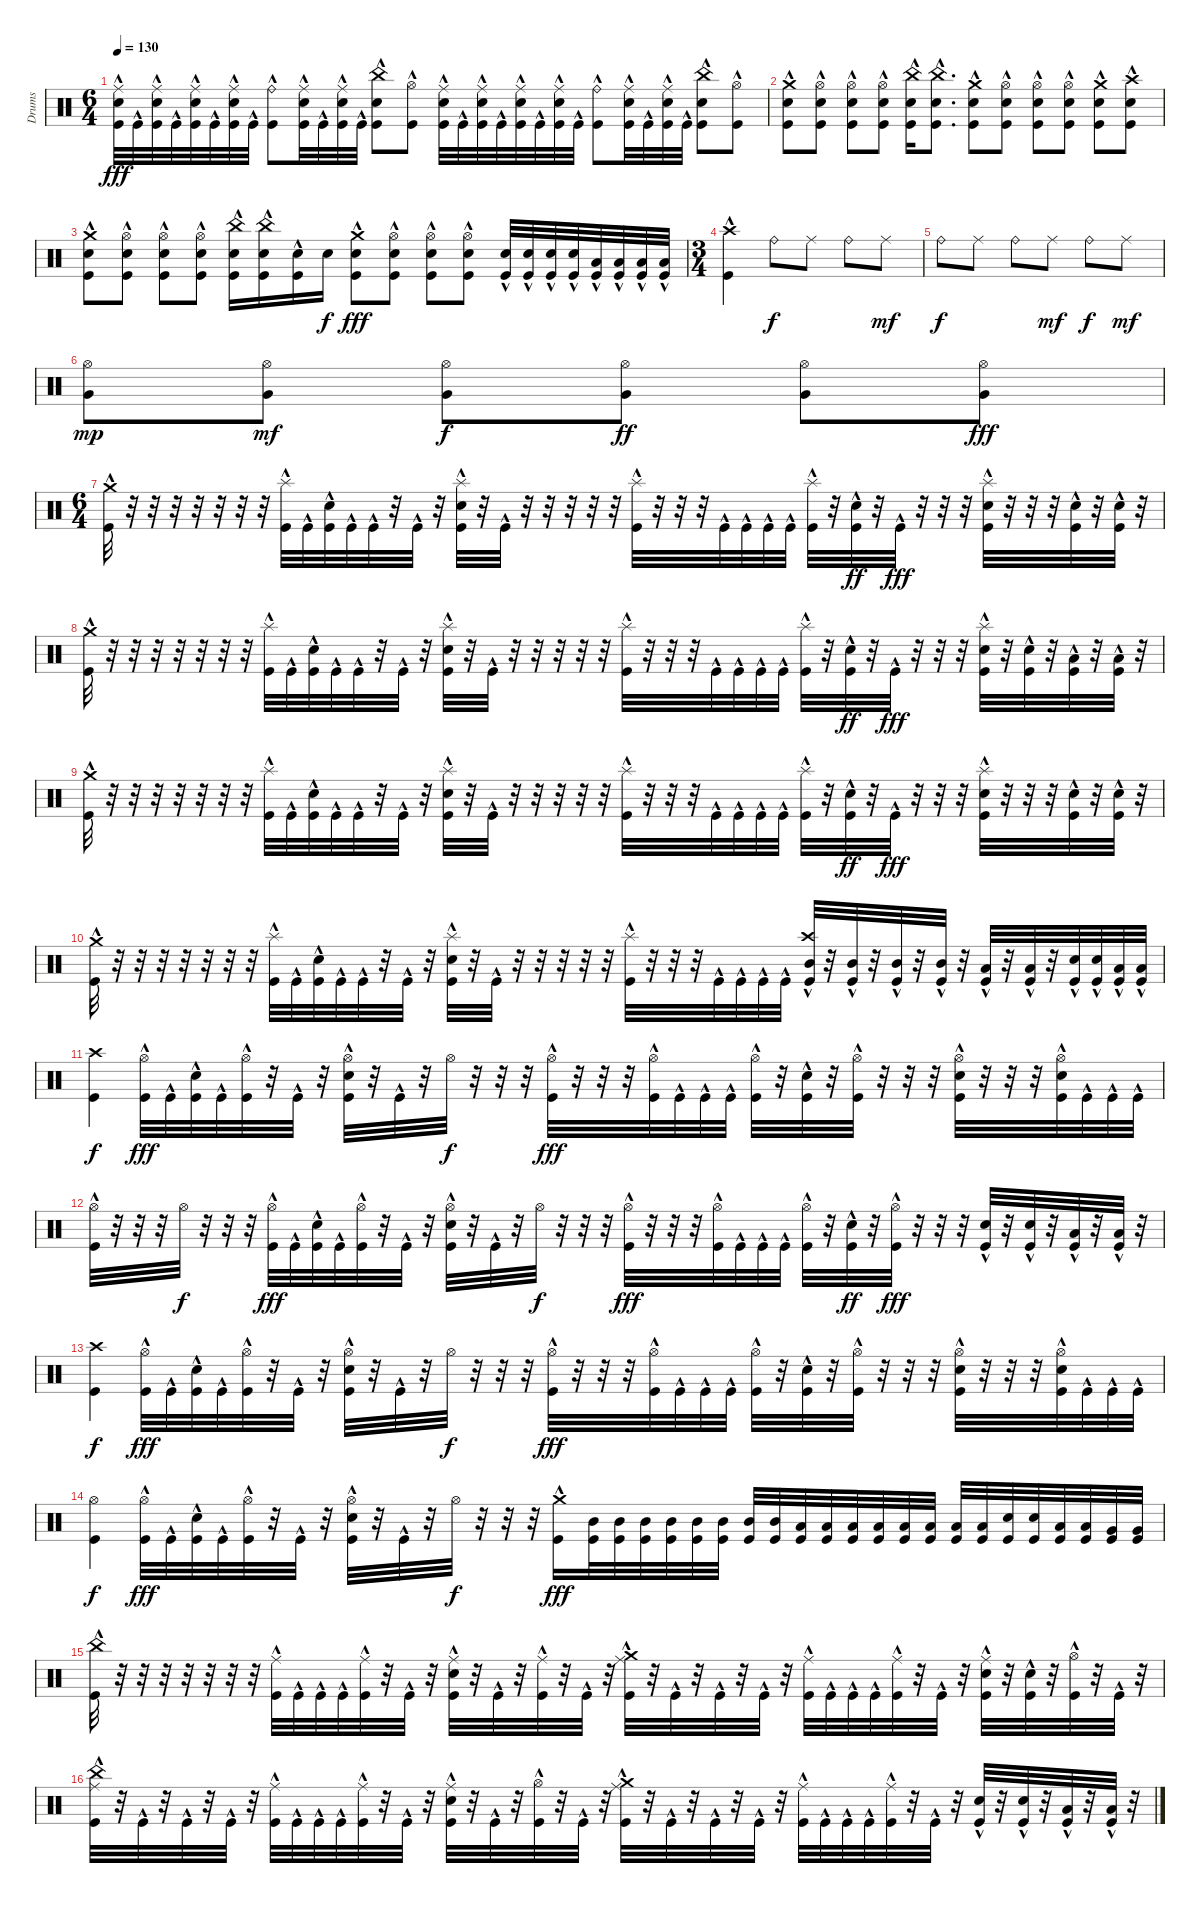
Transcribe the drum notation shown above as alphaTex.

\track ("Drums" "Drums") {instrument percussion}
\staff {score}
\articulation defaults
\ts (6 4)
\tempo 130
\clef neutral
\ks c
("Ride (middle)"{hac} "Snare (hit) 2" "Kick (hit)"{hac}).32{dy fff} "Kick (hit)"{hac}.32 ("Ride (middle)" "Snare (hit) 2" "Kick (hit)"{hac}).32 "Kick (hit)"{hac}.32 ("Ride (middle)" "Snare (hit) 2" "Kick (hit)"{hac}).32 "Kick (hit)"{hac}.32 ("Ride (middle)" "Snare (hit) 2" "Kick (hit)"{hac}).32 "Kick (hit)"{hac}.32 ("Ride (bell)"{hac} "Kick (hit)"{hac}).8 ("Ride (middle)" "Snare (hit) 2" "Kick (hit)"{hac}).32 "Kick (hit)"{hac}.32 ("Ride (middle)" "Snare (hit) 2" "Kick (hit)"{hac}).32 "Kick (hit)"{hac}.32 ("China (hit)" "Snare (hit) 2" "Kick (hit)"{hac}).8 ("Hi-Hat (open)" "Kick (hit)"{hac}).8 ("Ride (middle)"{hac} "Snare (hit) 2" "Kick (hit)"{hac}).32 "Kick (hit)"{hac}.32 ("Ride (middle)" "Snare (hit) 2" "Kick (hit)"{hac}).32 "Kick (hit)"{hac}.32 ("Ride (middle)" "Snare (hit) 2" "Kick (hit)"{hac}).32 "Kick (hit)"{hac}.32 ("Ride (middle)" "Snare (hit) 2" "Kick (hit)"{hac}).32 "Kick (hit)"{hac}.32 ("Ride (bell)"{hac} "Kick (hit)"{hac}).8 ("Ride (middle)" "Snare (hit) 2" "Kick (hit)"{hac}).32 "Kick (hit)"{hac}.32 ("Ride (middle)" "Snare (hit) 2" "Kick (hit)"{hac}).32 "Kick (hit)"{hac}.32 ("China (hit)" "Snare (hit) 2" "Kick (hit)"{hac}).8 ("Hi-Hat (open)" "Kick (hit)"{hac}).8 |
("Crash medium (hit)" "Snare (hit) 2" "Kick (hit)"{hac}).8 ("Hi-Hat (open)" "Snare (hit) 2" "Kick (hit)"{hac}).8 ("Hi-Hat (open)" "Snare (hit) 2" "Kick (hit)"{hac}).8 ("Hi-Hat (open)" "Snare (hit) 2" "Kick (hit)"{hac}).8 ("China (hit)" "Snare (hit) 2" "Kick (hit)"{hac}).16 ("China (hit)" "Snare (hit) 2" "Kick (hit)"{hac}).8{d} ("Crash medium (hit)" "Snare (hit) 2" "Kick (hit)"{hac}).8 ("Hi-Hat (open)" "Snare (hit) 2" "Kick (hit)"{hac}).8 ("Hi-Hat (open)" "Snare (hit) 2" "Kick (hit)"{hac}).8 ("Hi-Hat (open)" "Snare (hit) 2" "Kick (hit)"{hac}).8 ("Crash medium (hit)" "Snare (hit) 2" "Kick (hit)"{hac}).8 ("Crash high (hit)" "Snare (hit) 2" "Kick (hit)"{hac}).8 |
("Crash medium (hit)" "Snare (hit) 2" "Kick (hit)"{hac}).8 ("Hi-Hat (open)" "Snare (hit) 2" "Kick (hit)"{hac}).8 ("Hi-Hat (open)" "Snare (hit) 2" "Kick (hit)"{hac}).8 ("Hi-Hat (open)" "Snare (hit) 2" "Kick (hit)"{hac}).8 ("China (hit)" "Snare (hit) 2" "Kick (hit)"{hac}).16 ("China (hit)" "Snare (hit) 2" "Kick (hit)"{hac}).16 ("Snare (hit) 2" "Kick (hit)"{hac}).16 "Snare (hit) 2".16{dy f} ("Crash medium (hit)" "Snare (hit) 2" "Kick (hit)"{hac}).8{dy fff} ("Hi-Hat (open)" "Snare (hit) 2" "Kick (hit)"{hac}).8 ("Hi-Hat (open)" "Snare (hit) 2" "Kick (hit)"{hac}).8 ("Hi-Hat (open)" "Snare (hit) 2" "Kick (hit)"{hac}).8 ("Snare (hit) 2" "Kick (hit)"{hac}).32 ("Snare (hit) 2" "Kick (hit)"{hac}).32 ("Snare (hit) 2" "Kick (hit)"{hac}).32 ("Snare (hit) 2" "Kick (hit)"{hac}).32 ("Low Tom (hit)" "Kick (hit)"{hac}).32 ("Low Tom (hit)" "Kick (hit)"{hac}).32 ("Low Tom (hit)" "Kick (hit)"{hac}).32 ("Low Tom (hit)" "Kick (hit)"{hac}).32 |
\ts (3 4)
("Crash high (hit)" "Kick (hit)"{hac}).4 "Ride (bell)".8{dy f} "Ride (middle)".8 "Ride (bell)".8 "Ride (middle)".8{dy mf} |
"Ride (bell)".8{dy f} "Ride (middle)".8 "Ride (bell)".8 "Ride (middle)".8{dy mf} "Ride (bell)".8{dy f} "Ride (middle)".8{dy mf} |
("Very Low Tom (hit)" "Hi-Hat (open)").8{dy mp} ("Very Low Tom (hit)" "Hi-Hat (open)").8{dy mf} ("Very Low Tom (hit)" "Hi-Hat (open)").8{dy f} ("Very Low Tom (hit)" "Hi-Hat (open)").8{dy ff} ("Very Low Tom (hit)" "Hi-Hat (open)").8 ("Very Low Tom (hit)" "Hi-Hat (open)").8{dy fff} |
\ts (6 4)
("Crash medium (hit)" "Kick (hit)"{hac}).32 r.32 r.32 r.32 r.32 r.32 r.32 r.32 ("Splash (hit)" "Kick (hit)"{hac}).32 "Kick (hit)"{hac}.32 ("Snare (hit) 2" "Kick (hit)"{hac}).32 "Kick (hit)"{hac}.32 "Kick (hit)"{hac}.32 r.32 "Kick (hit)"{hac}.32 r.32 ("Splash (hit)" "Snare (hit) 2" "Kick (hit)"{hac}).32 r.32 "Kick (hit)"{hac}.32 r.32 r.32 r.32 r.32 r.32 ("Splash (hit)" "Kick (hit)"{hac}).32 r.32 r.32 r.32 "Kick (hit)"{hac}.32 "Kick (hit)"{hac}.32 "Kick (hit)"{hac}.32 "Kick (hit)"{hac}.32 ("Splash (hit)" "Kick (hit)"{hac}).32 r.32 ("Snare (hit) 2" "Kick (hit)"{hac}).32{dy ff} r.32 "Kick (hit)"{hac}.32{dy fff} r.32 r.32 r.32 ("Splash (hit)" "Snare (hit) 2" "Kick (hit)"{hac}).32 r.32 r.32 r.32 ("Snare (hit) 2" "Kick (hit)"{hac}).32 r.32 ("Snare (hit) 2" "Kick (hit)"{hac}).32 r.32 |
("Crash medium (hit)" "Kick (hit)"{hac}).32 r.32 r.32 r.32 r.32 r.32 r.32 r.32 ("Splash (hit)" "Kick (hit)"{hac}).32 "Kick (hit)"{hac}.32 ("Snare (hit) 2" "Kick (hit)"{hac}).32 "Kick (hit)"{hac}.32 "Kick (hit)"{hac}.32 r.32 "Kick (hit)"{hac}.32 r.32 ("Splash (hit)" "Snare (hit) 2" "Kick (hit)"{hac}).32 r.32 "Kick (hit)"{hac}.32 r.32 r.32 r.32 r.32 r.32 ("Splash (hit)" "Kick (hit)"{hac}).32 r.32 r.32 r.32 "Kick (hit)"{hac}.32 "Kick (hit)"{hac}.32 "Kick (hit)"{hac}.32 "Kick (hit)"{hac}.32 ("Splash (hit)" "Kick (hit)"{hac}).32 r.32 ("Snare (hit) 2" "Kick (hit)"{hac}).32{dy ff} r.32 "Kick (hit)"{hac}.32{dy fff} r.32 r.32 r.32 ("Splash (hit)" "Snare (hit) 2" "Kick (hit)"{hac}).32 r.32 ("Snare (hit) 2" "Kick (hit)"{hac}).32 r.32 ("Low Tom (hit)" "Kick (hit)"{hac}).32 r.32 ("Low Tom (hit)" "Kick (hit)"{hac}).32 r.32 |
("Crash medium (hit)" "Kick (hit)"{hac}).32 r.32 r.32 r.32 r.32 r.32 r.32 r.32 ("Splash (hit)" "Kick (hit)"{hac}).32 "Kick (hit)"{hac}.32 ("Snare (hit) 2" "Kick (hit)"{hac}).32 "Kick (hit)"{hac}.32 "Kick (hit)"{hac}.32 r.32 "Kick (hit)"{hac}.32 r.32 ("Splash (hit)" "Snare (hit) 2" "Kick (hit)"{hac}).32 r.32 "Kick (hit)"{hac}.32 r.32 r.32 r.32 r.32 r.32 ("Splash (hit)" "Kick (hit)"{hac}).32 r.32 r.32 r.32 "Kick (hit)"{hac}.32 "Kick (hit)"{hac}.32 "Kick (hit)"{hac}.32 "Kick (hit)"{hac}.32 ("Splash (hit)" "Kick (hit)"{hac}).32 r.32 ("Snare (hit) 2" "Kick (hit)"{hac}).32{dy ff} r.32 "Kick (hit)"{hac}.32{dy fff} r.32 r.32 r.32 ("Splash (hit)" "Snare (hit) 2" "Kick (hit)"{hac}).32 r.32 r.32 r.32 ("Snare (hit) 2" "Kick (hit)"{hac}).32 r.32 ("Snare (hit) 2" "Kick (hit)"{hac}).32 r.32 |
("Crash medium (hit)" "Kick (hit)"{hac}).32 r.32 r.32 r.32 r.32 r.32 r.32 r.32 ("Splash (hit)" "Kick (hit)"{hac}).32 "Kick (hit)"{hac}.32 ("Snare (hit) 2" "Kick (hit)"{hac}).32 "Kick (hit)"{hac}.32 "Kick (hit)"{hac}.32 r.32 "Kick (hit)"{hac}.32 r.32 ("Splash (hit)" "Snare (hit) 2" "Kick (hit)"{hac}).32 r.32 "Kick (hit)"{hac}.32 r.32 r.32 r.32 r.32 r.32 ("Splash (hit)" "Kick (hit)"{hac}).32 r.32 r.32 r.32 "Kick (hit)"{hac}.32 "Kick (hit)"{hac}.32 "Kick (hit)"{hac}.32 "Kick (hit)"{hac}.32 ("Crash high (hit)" "Mid Tom (hit)" "Kick (hit)"{hac}).32 r.32 ("Mid Tom (hit)" "Kick (hit)"{hac}).32 r.32 ("Mid Tom (hit)" "Kick (hit)"{hac}).32 r.32 ("Mid Tom (hit)" "Kick (hit)"{hac}).32 r.32 ("Low Tom (hit)" "Kick (hit)"{hac}).32 r.32 ("Low Tom (hit)" "Kick (hit)"{hac}).32 r.32 ("Snare (hit) 2" "Kick (hit)"{hac}).32 ("Snare (hit) 2" "Kick (hit)"{hac}).32 ("Low Floor Tom (hit)" "Kick (hit)"{hac}).32 ("Low Floor Tom (hit)" "Kick (hit)"{hac}).32 |
("Crash high (hit)" "Kick (hit)").4{dy f} ("Hi-Hat (open)" "Kick (hit)"{hac}).32{dy fff} "Kick (hit)"{hac}.32 ("Snare (hit) 2" "Kick (hit)"{hac}).32 "Kick (hit)"{hac}.32 ("Hi-Hat (open)" "Kick (hit)"{hac}).32 r.32 "Kick (hit)"{hac}.32 r.32 ("Hi-Hat (open)" "Snare (hit) 2" "Kick (hit)"{hac}).32 r.32 "Kick (hit)"{hac}.32 r.32 "Hi-Hat (open)".32{dy f} r.32 r.32 r.32 ("Hi-Hat (open)" "Kick (hit)"{hac}).32{dy fff} r.32 r.32 r.32 ("Hi-Hat (open)" "Kick (hit)"{hac}).32 "Kick (hit)"{hac}.32 "Kick (hit)"{hac}.32 "Kick (hit)"{hac}.32 ("Hi-Hat (open)" "Kick (hit)"{hac}).32 r.32 ("Snare (hit) 2" "Kick (hit)"{hac}).32 r.32 ("Hi-Hat (open)" "Kick (hit)"{hac}).32 r.32 r.32 r.32 ("Hi-Hat (open)" "Snare (hit) 2" "Kick (hit)"{hac}).32 r.32 r.32 r.32 ("Hi-Hat (open)" "Snare (hit) 2" "Kick (hit)"{hac}).32 "Kick (hit)"{hac}.32 "Kick (hit)"{hac}.32 "Kick (hit)"{hac}.32 |
("Hi-Hat (open)" "Kick (hit)"{hac}).32 r.32 r.32 r.32 "Hi-Hat (open)".32{dy f} r.32 r.32 r.32 ("Hi-Hat (open)" "Kick (hit)"{hac}).32{dy fff} "Kick (hit)"{hac}.32 ("Snare (hit) 2" "Kick (hit)"{hac}).32 "Kick (hit)"{hac}.32 ("Hi-Hat (open)" "Kick (hit)"{hac}).32 r.32 "Kick (hit)"{hac}.32 r.32 ("Hi-Hat (open)" "Snare (hit) 2" "Kick (hit)"{hac}).32 r.32 "Kick (hit)"{hac}.32 r.32 "Hi-Hat (open)".32{dy f} r.32 r.32 r.32 ("Hi-Hat (open)" "Kick (hit)"{hac}).32{dy fff} r.32 r.32 r.32 ("Hi-Hat (open)" "Kick (hit)"{hac}).32 "Kick (hit)"{hac}.32 "Kick (hit)"{hac}.32 "Kick (hit)"{hac}.32 ("Hi-Hat (open)" "Kick (hit)"{hac}).32 r.32 ("Snare (hit) 2" "Kick (hit)"{hac}).32{dy ff} r.32 ("Hi-Hat (open)" "Kick (hit)"{hac}).32{dy fff} r.32 r.32 r.32 ("Snare (hit) 2" "Kick (hit)"{hac}).32 r.32 ("Snare (hit) 2" "Kick (hit)"{hac}).32 r.32 ("Low Tom (hit)" "Kick (hit)"{hac}).32 r.32 ("Low Tom (hit)" "Kick (hit)"{hac}).32 r.32 |
("Crash high (hit)" "Kick (hit)").4{dy f} ("Hi-Hat (open)" "Kick (hit)"{hac}).32{dy fff} "Kick (hit)"{hac}.32 ("Snare (hit) 2" "Kick (hit)"{hac}).32 "Kick (hit)"{hac}.32 ("Hi-Hat (open)" "Kick (hit)"{hac}).32 r.32 "Kick (hit)"{hac}.32 r.32 ("Hi-Hat (open)" "Snare (hit) 2" "Kick (hit)"{hac}).32 r.32 "Kick (hit)"{hac}.32 r.32 "Hi-Hat (open)".32{dy f} r.32 r.32 r.32 ("Hi-Hat (open)" "Kick (hit)"{hac}).32{dy fff} r.32 r.32 r.32 ("Hi-Hat (open)" "Kick (hit)"{hac}).32 "Kick (hit)"{hac}.32 "Kick (hit)"{hac}.32 "Kick (hit)"{hac}.32 ("Hi-Hat (open)" "Kick (hit)"{hac}).32 r.32 ("Snare (hit) 2" "Kick (hit)"{hac}).32 r.32 ("Hi-Hat (open)" "Kick (hit)"{hac}).32 r.32 r.32 r.32 ("Hi-Hat (open)" "Snare (hit) 2" "Kick (hit)"{hac}).32 r.32 r.32 r.32 ("Hi-Hat (open)" "Snare (hit) 2" "Kick (hit)"{hac}).32 "Kick (hit)"{hac}.32 "Kick (hit)"{hac}.32 "Kick (hit)"{hac}.32 |
("Hi-Hat (open)" "Kick (hit)").4{dy f} ("Hi-Hat (open)" "Kick (hit)"{hac}).32{dy fff} "Kick (hit)"{hac}.32 ("Snare (hit) 2" "Kick (hit)"{hac}).32 "Kick (hit)"{hac}.32 ("Hi-Hat (open)" "Kick (hit)"{hac}).32 r.32 "Kick (hit)"{hac}.32 r.32 ("Hi-Hat (open)" "Snare (hit) 2" "Kick (hit)"{hac}).32 r.32 "Kick (hit)"{hac}.32 r.32 "Hi-Hat (open)".32{dy f} r.32 r.32 r.32 ("Crash medium (hit)" "Kick (hit)"{hac}).16{dy fff} ("Mid Tom (hit)" "Kick (hit)").32 ("Mid Tom (hit)" "Kick (hit)").32 ("Mid Tom (hit)" "Kick (hit)").32 ("Mid Tom (hit)" "Kick (hit)").32 ("Mid Tom (hit)" "Kick (hit)").32 ("Mid Tom (hit)" "Kick (hit)").32 ("Mid Tom (hit)" "Kick (hit)").32 ("Mid Tom (hit)" "Kick (hit)").32 ("Low Tom (hit)" "Kick (hit)").32 ("Low Tom (hit)" "Kick (hit)").32 ("Low Tom (hit)" "Kick (hit)").32 ("Low Tom (hit)" "Kick (hit)").32 ("Low Tom (hit)" "Kick (hit)").32 ("Low Tom (hit)" "Kick (hit)").32 ("Low Tom (hit)" "Kick (hit)").32 ("Low Tom (hit)" "Kick (hit)").32 ("Snare (hit) 2" "Kick (hit)").32 ("Snare (hit) 2" "Kick (hit)").32 ("Low Tom (hit)" "Kick (hit)").32 ("Low Tom (hit)" "Kick (hit)").32 ("Very Low Tom (hit)" "Kick (hit)").32 ("Very Low Tom (hit)" "Kick (hit)").32 |
("China (hit)" "Kick (hit)"{hac}).32 r.32 r.32 r.32 r.32 r.32 r.32 r.32 ("Ride (middle)" "Kick (hit)"{hac}).32 "Kick (hit)"{hac}.32 "Kick (hit)"{hac}.32 "Kick (hit)"{hac}.32 ("Ride (middle)" "Kick (hit)"{hac}).32 r.32 "Kick (hit)"{hac}.32 r.32 ("Ride (middle)" "Snare (hit) 2" "Kick (hit)"{hac}).32 r.32 "Kick (hit)"{hac}.32 r.32 ("Ride (middle)" "Kick (hit)"{hac}).32 r.32 "Kick (hit)"{hac}.32 r.32 ("Crash medium (hit)" "Ride (middle)" "Kick (hit)"{hac}).32 r.32 "Kick (hit)"{hac}.32 r.32 "Kick (hit)"{hac}.32 r.32 "Kick (hit)"{hac}.32 r.32 ("Ride (middle)" "Kick (hit)"{hac}).32 "Kick (hit)"{hac}.32 "Kick (hit)"{hac}.32 "Kick (hit)"{hac}.32 ("Ride (middle)" "Kick (hit)"{hac}).32 r.32 "Kick (hit)"{hac}.32 r.32 ("Ride (middle)" "Snare (hit) 2" "Kick (hit)"{hac}).32 r.32 ("Snare (hit) 2" "Kick (hit)"{hac}).32 r.32 ("Hi-Hat (open)" "Kick (hit)"{hac}).32 r.32 "Kick (hit)"{hac}.32 r.32 |
("China (hit)" "Ride (middle)" "Kick (hit)"{hac}).32 r.32 "Kick (hit)"{hac}.32 r.32 "Kick (hit)"{hac}.32 r.32 "Kick (hit)"{hac}.32 r.32 ("Ride (middle)" "Kick (hit)"{hac}).32 "Kick (hit)"{hac}.32 "Kick (hit)"{hac}.32 "Kick (hit)"{hac}.32 ("Ride (middle)" "Kick (hit)"{hac}).32 r.32 "Kick (hit)"{hac}.32 r.32 ("Ride (middle)" "Snare (hit) 2" "Kick (hit)"{hac}).32 r.32 "Kick (hit)"{hac}.32 r.32 ("Hi-Hat (open)" "Kick (hit)"{hac}).32 r.32 "Kick (hit)"{hac}.32 r.32 ("Crash medium (hit)" "Ride (middle)" "Kick (hit)"{hac}).32 r.32 "Kick (hit)"{hac}.32 r.32 "Kick (hit)"{hac}.32 r.32 "Kick (hit)"{hac}.32 r.32 ("Ride (middle)" "Kick (hit)"{hac}).32 "Kick (hit)"{hac}.32 "Kick (hit)"{hac}.32 "Kick (hit)"{hac}.32 ("Ride (middle)" "Kick (hit)"{hac}).32 r.32 "Kick (hit)"{hac}.32 r.32 ("Snare (hit) 2" "Kick (hit)"{hac}).32 r.32 ("Snare (hit) 2" "Kick (hit)"{hac}).32 r.32 ("Low Tom (hit)" "Kick (hit)"{hac}).32 r.32 ("Low Tom (hit)" "Kick (hit)"{hac}).32 r.32
